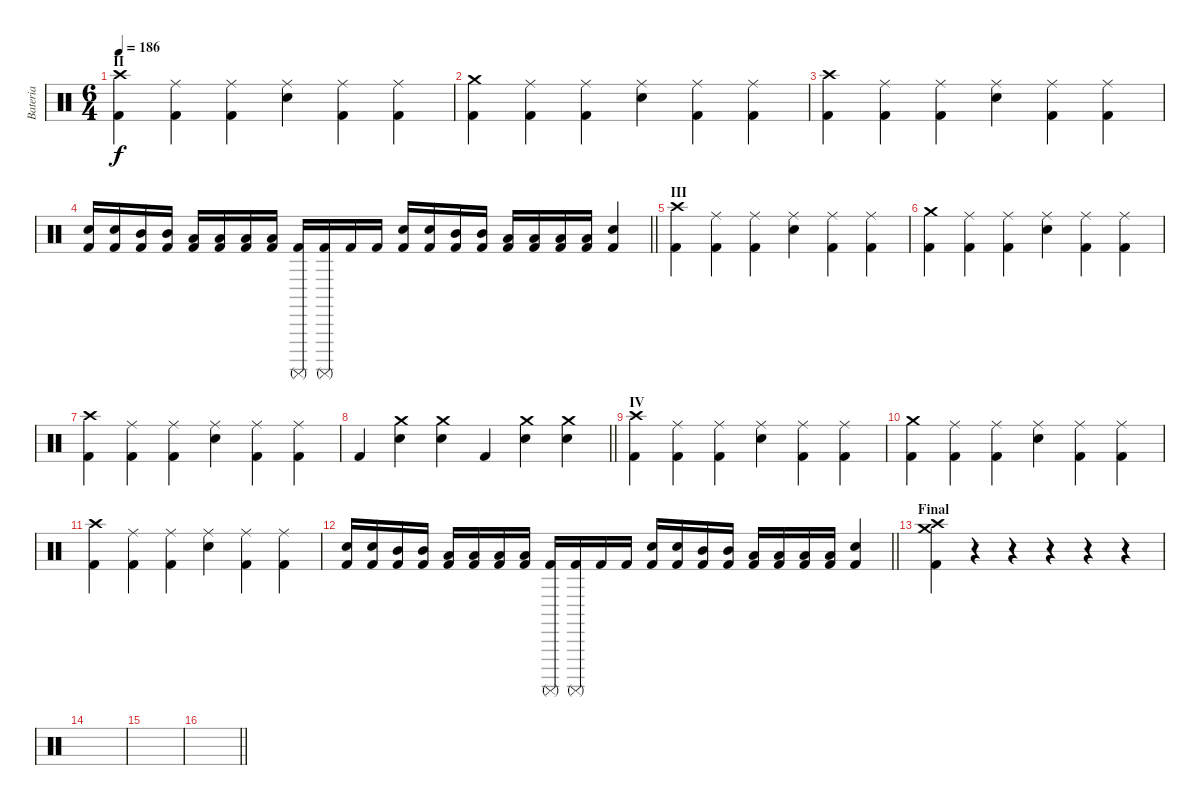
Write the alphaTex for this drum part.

\track ("Bateria" "Bateria") {instrument percussion}
\staff {score}
\articulation defaults
\ts (6 4)
\section ("" "II")
\tempo 186
\clef neutral
\ks c
("Kick (hit) 2" "Crash high (hit)").4{dy f} ("Kick (hit) 2" "Ride (middle)").4 ("Kick (hit) 2" "Ride (middle)").4 ("Electric Snare (hit)" "Ride (middle)").4 ("Kick (hit) 2" "Ride (middle)").4 ("Kick (hit) 2" "Ride (middle)").4 |
("Kick (hit) 2" "Crash medium (hit)").4 ("Kick (hit) 2" "Ride (middle)").4 ("Kick (hit) 2" "Ride (middle)").4 ("Electric Snare (hit)" "Ride (middle)").4 ("Kick (hit) 2" "Ride (middle)").4 ("Kick (hit) 2" "Ride (middle)").4 |
("Kick (hit) 2" "Crash high (hit)").4 ("Kick (hit) 2" "Ride (middle)").4 ("Kick (hit) 2" "Ride (middle)").4 ("Electric Snare (hit)" "Ride (middle)").4 ("Kick (hit) 2" "Ride (middle)").4 ("Kick (hit) 2" "Ride (middle)").4 |
\barLineRight lightlight
("Kick (hit) 2" "Electric Snare (hit)").16 ("Kick (hit) 2" "Electric Snare (hit)").16 ("Kick (hit) 2" "Mid Tom (hit)").16 ("Kick (hit) 2" "Mid Tom (hit)").16 ("Kick (hit) 2" "Low Tom (hit)").16 ("Kick (hit) 2" "Low Tom (hit)").16 ("Kick (hit) 2" "Low Floor Tom (hit)").16 ("Kick (hit) 2" "Low Floor Tom (hit)").16 ("Kick (hit) 2" "Surdo (mute)").16 ("Kick (hit) 2" "Surdo (mute)").16 "Kick (hit) 2".16 "Kick (hit) 2".16 ("Kick (hit) 2" "Electric Snare (hit)").16 ("Kick (hit) 2" "Electric Snare (hit)").16 ("Kick (hit) 2" "Mid Tom (hit)").16 ("Kick (hit) 2" "Mid Tom (hit)").16 ("Kick (hit) 2" "Low Tom (hit)").16 ("Kick (hit) 2" "Low Tom (hit)").16 ("Kick (hit) 2" "Low Floor Tom (hit)").16 ("Kick (hit) 2" "Low Floor Tom (hit)").16 ("Kick (hit) 2" "Electric Snare (hit)").4 |
\section ("" "III")
("Kick (hit) 2" "Crash high (hit)").4 ("Kick (hit) 2" "Ride (middle)").4 ("Kick (hit) 2" "Ride (middle)").4 ("Electric Snare (hit)" "Ride (middle)").4 ("Kick (hit) 2" "Ride (middle)").4 ("Kick (hit) 2" "Ride (middle)").4 |
("Kick (hit) 2" "Crash medium (hit)").4 ("Kick (hit) 2" "Ride (middle)").4 ("Kick (hit) 2" "Ride (middle)").4 ("Electric Snare (hit)" "Ride (middle)").4 ("Kick (hit) 2" "Ride (middle)").4 ("Kick (hit) 2" "Ride (middle)").4 |
("Kick (hit) 2" "Crash high (hit)").4 ("Kick (hit) 2" "Ride (middle)").4 ("Kick (hit) 2" "Ride (middle)").4 ("Electric Snare (hit)" "Ride (middle)").4 ("Kick (hit) 2" "Ride (middle)").4 ("Kick (hit) 2" "Ride (middle)").4 |
\barLineRight lightlight "Kick (hit) 2".4
("Electric Snare (hit)" "Crash medium (hit)").4 ("Electric Snare (hit)" "Crash medium (hit)").4 "Kick (hit) 2".4 ("Electric Snare (hit)" "Crash medium (hit)").4 ("Electric Snare (hit)" "Crash medium (hit)").4 |
\section ("" "IV")
("Kick (hit) 2" "Crash high (hit)").4 ("Kick (hit) 2" "Ride (middle)").4 ("Kick (hit) 2" "Ride (middle)").4 ("Electric Snare (hit)" "Ride (middle)").4 ("Kick (hit) 2" "Ride (middle)").4 ("Kick (hit) 2" "Ride (middle)").4 |
("Kick (hit) 2" "Crash medium (hit)").4 ("Kick (hit) 2" "Ride (middle)").4 ("Kick (hit) 2" "Ride (middle)").4 ("Electric Snare (hit)" "Ride (middle)").4 ("Kick (hit) 2" "Ride (middle)").4 ("Kick (hit) 2" "Ride (middle)").4 |
("Kick (hit) 2" "Crash high (hit)").4 ("Kick (hit) 2" "Ride (middle)").4 ("Kick (hit) 2" "Ride (middle)").4 ("Electric Snare (hit)" "Ride (middle)").4 ("Kick (hit) 2" "Ride (middle)").4 ("Kick (hit) 2" "Ride (middle)").4 |
\barLineRight lightlight
("Kick (hit) 2" "Electric Snare (hit)").16 ("Kick (hit) 2" "Electric Snare (hit)").16 ("Kick (hit) 2" "Mid Tom (hit)").16 ("Kick (hit) 2" "Mid Tom (hit)").16 ("Kick (hit) 2" "Low Tom (hit)").16 ("Kick (hit) 2" "Low Tom (hit)").16 ("Kick (hit) 2" "Low Floor Tom (hit)").16 ("Kick (hit) 2" "Low Floor Tom (hit)").16 ("Kick (hit) 2" "Surdo (mute)").16 ("Kick (hit) 2" "Surdo (mute)").16 "Kick (hit) 2".16 "Kick (hit) 2".16 ("Kick (hit) 2" "Electric Snare (hit)").16 ("Kick (hit) 2" "Electric Snare (hit)").16 ("Kick (hit) 2" "Mid Tom (hit)").16 ("Kick (hit) 2" "Mid Tom (hit)").16 ("Kick (hit) 2" "Low Tom (hit)").16 ("Kick (hit) 2" "Low Tom (hit)").16 ("Kick (hit) 2" "Low Floor Tom (hit)").16 ("Kick (hit) 2" "Low Floor Tom (hit)").16 ("Kick (hit) 2" "Electric Snare (hit)").4 |
\section ("" "Final")
("Kick (hit) 2" "Crash high (hit)" "Crash medium (hit)").4 r.4 r.4 r.4 r.4 r.4 |
|
|
\barLineRight lightlight
